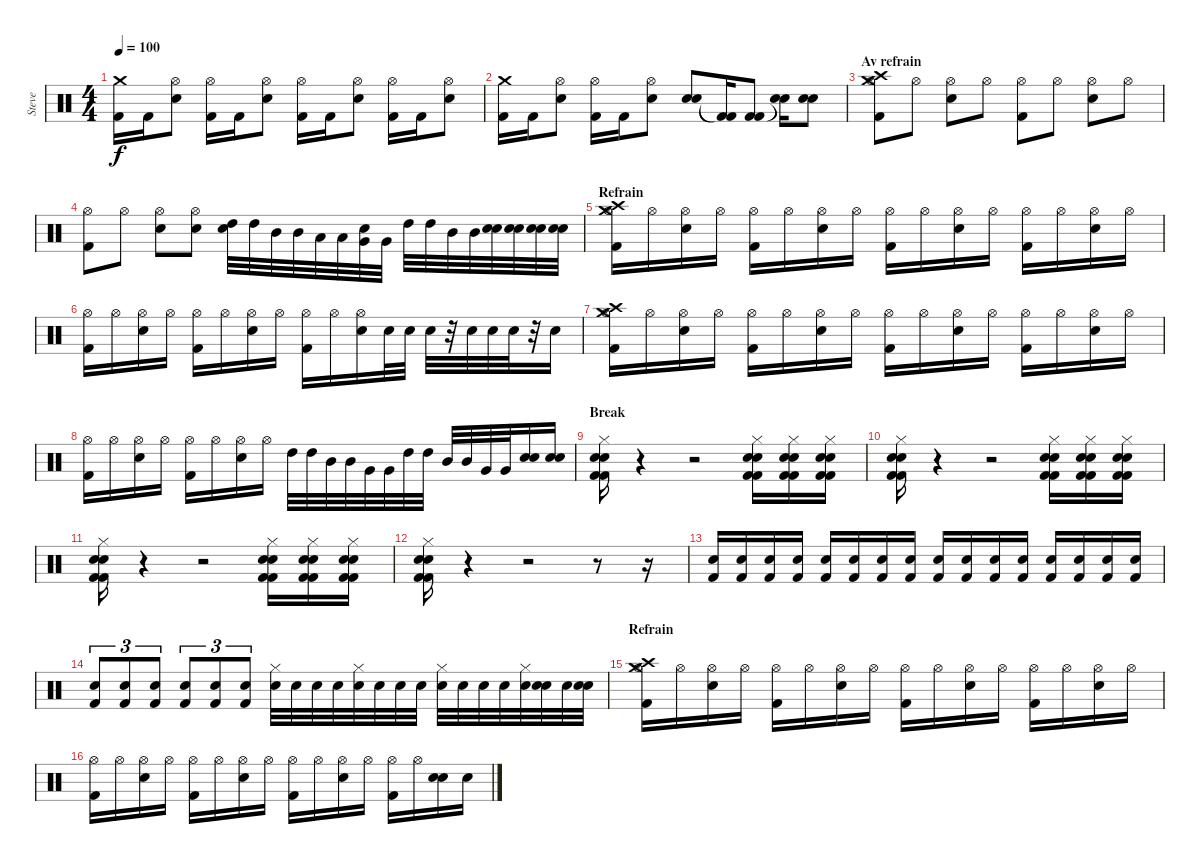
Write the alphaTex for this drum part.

\track ("Steve" "Steve") {instrument percussion}
\staff {score}
\articulation defaults
\ts (4 4)
\tempo 100
\clef neutral
\ks c
("Crash medium (hit)" "Kick (hit) 2").16{dy f} "Kick (hit) 2".16 ("Hi-Hat (open)" "Electric Snare (hit)").8 ("Hi-Hat (open)" "Kick (hit) 2").16 "Kick (hit) 2".16 ("Hi-Hat (open)" "Electric Snare (hit)").8 ("Hi-Hat (open)" "Kick (hit) 2").16 "Kick (hit) 2".16 ("Hi-Hat (open)" "Electric Snare (hit)").8 ("Hi-Hat (open)" "Kick (hit) 2").16 "Kick (hit) 2".16 ("Hi-Hat (open)" "Electric Snare (hit)").8 |
("Crash medium (hit)" "Kick (hit) 2").16 "Kick (hit) 2".16 ("Hi-Hat (open)" "Electric Snare (hit)").8 ("Hi-Hat (open)" "Kick (hit) 2").16 "Kick (hit) 2".16 ("Hi-Hat (open)" "Electric Snare (hit)").8 ("Electric Snare (hit)" "Electric Snare (hit)").8 ("Kick (hit) 2"{t} "Kick (hit) 2"{t}).16 ("Kick (hit) 2" "Kick (hit) 2").8 ("Electric Snare (hit)"{t} "Electric Snare (hit)"{t}).16 ("Electric Snare (hit)" "Electric Snare (hit)").8 |
\section ("" "Av refrain")
("Crash medium (hit)" "Crash high (hit)" "Hi-Hat (open)" "Kick (hit) 2").8 "Hi-Hat (open)".8 ("Hi-Hat (open)" "Electric Snare (hit)").8 "Hi-Hat (open)".8 ("Hi-Hat (open)" "Kick (hit) 2").8 "Hi-Hat (open)".8 ("Hi-Hat (open)" "Electric Snare (hit)").8 "Hi-Hat (open)".8 |
("Hi-Hat (open)" "Kick (hit) 2").8 "Hi-Hat (open)".8 ("Hi-Hat (open)" "Electric Snare (hit)").8 ("Hi-Hat (open)" "Electric Snare (hit)").8 ("Electric Snare (hit)" "High Tom (hit)").32 "High Tom (hit)".32 "Mid Tom (hit)".32 "Mid Tom (hit)".32 "Low Tom (hit)".32 "Low Tom (hit)".32 ("Electric Snare (hit)" "Very Low Tom (hit)").32 "Very Low Tom (hit)".32 "High Tom (hit)".32 "High Tom (hit)".32 "Mid Tom (hit)".32 "Mid Tom (hit)".32 ("Electric Snare (hit)" "Electric Snare (hit)").32 ("Electric Snare (hit)" "Electric Snare (hit)").32 ("Electric Snare (hit)" "Electric Snare (hit)").32 ("Electric Snare (hit)" "Electric Snare (hit)").32 |
\section ("" "Refrain")
("Crash medium (hit)" "Crash high (hit)" "Hi-Hat (open)" "Kick (hit) 2").16 "Hi-Hat (open)".16 ("Hi-Hat (open)" "Electric Snare (hit)").16 "Hi-Hat (open)".16 ("Hi-Hat (open)" "Kick (hit) 2").16 "Hi-Hat (open)".16 ("Hi-Hat (open)" "Electric Snare (hit)").16 "Hi-Hat (open)".16 ("Hi-Hat (open)" "Kick (hit) 2").16 "Hi-Hat (open)".16 ("Hi-Hat (open)" "Electric Snare (hit)").16 "Hi-Hat (open)".16 ("Hi-Hat (open)" "Kick (hit) 2").16 "Hi-Hat (open)".16 ("Hi-Hat (open)" "Electric Snare (hit)").16 "Hi-Hat (open)".16 |
("Hi-Hat (open)" "Kick (hit) 2").16 "Hi-Hat (open)".16 ("Hi-Hat (open)" "Electric Snare (hit)").16 "Hi-Hat (open)".16 ("Hi-Hat (open)" "Kick (hit) 2").16 "Hi-Hat (open)".16 ("Hi-Hat (open)" "Electric Snare (hit)").16 "Hi-Hat (open)".16 ("Hi-Hat (open)" "Kick (hit) 2").16 "Hi-Hat (open)".16 ("Hi-Hat (open)" "Electric Snare (hit)").16 "Electric Snare (hit)".32 "Electric Snare (hit)".32 "Electric Snare (hit)".32 r.32 "Electric Snare (hit)".32 "Electric Snare (hit)".32 "Electric Snare (hit)".32 r.32 "Electric Snare (hit)".16 |
("Crash medium (hit)" "Crash high (hit)" "Hi-Hat (open)" "Kick (hit) 2").16 "Hi-Hat (open)".16 ("Hi-Hat (open)" "Electric Snare (hit)").16 "Hi-Hat (open)".16 ("Hi-Hat (open)" "Kick (hit) 2").16 "Hi-Hat (open)".16 ("Hi-Hat (open)" "Electric Snare (hit)").16 "Hi-Hat (open)".16 ("Hi-Hat (open)" "Kick (hit) 2").16 "Hi-Hat (open)".16 ("Hi-Hat (open)" "Electric Snare (hit)").16 "Hi-Hat (open)".16 ("Hi-Hat (open)" "Kick (hit) 2").16 "Hi-Hat (open)".16 ("Hi-Hat (open)" "Electric Snare (hit)").16 "Hi-Hat (open)".16 |
("Hi-Hat (open)" "Kick (hit) 2").16 "Hi-Hat (open)".16 ("Hi-Hat (open)" "Electric Snare (hit)").16 "Hi-Hat (open)".16 ("Hi-Hat (open)" "Kick (hit) 2").16 "Hi-Hat (open)".16 ("Hi-Hat (open)" "Electric Snare (hit)").16 "Hi-Hat (open)".16 "High Tom (hit)".32 "High Tom (hit)".32 "Mid Tom (hit)".32 "Mid Tom (hit)".32 "Very Low Tom (hit)".32 "Very Low Tom (hit)".32 "High Tom (hit)".32 "High Tom (hit)".32 "Mid Tom (hit)".32 "Mid Tom (hit)".32 "Very Low Tom (hit)".32 "Very Low Tom (hit)".32 ("Electric Snare (hit)" "Electric Snare (hit)").16 ("Electric Snare (hit)" "Electric Snare (hit)").16 |
\section ("" "Break")
("Kick (hit) 2" "Electric Snare (hit)" "Hi-Hat (closed)" "Kick (hit) 2" "Electric Snare (hit)").16 r.4 r.2 ("Kick (hit) 2" "Electric Snare (hit)" "Hi-Hat (closed)" "Kick (hit) 2" "Electric Snare (hit)").16 ("Kick (hit) 2" "Electric Snare (hit)" "Hi-Hat (closed)" "Kick (hit) 2" "Electric Snare (hit)").16 ("Kick (hit) 2" "Electric Snare (hit)" "Hi-Hat (closed)" "Kick (hit) 2" "Electric Snare (hit)").16 |
("Kick (hit) 2" "Electric Snare (hit)" "Hi-Hat (closed)" "Kick (hit) 2" "Electric Snare (hit)").16 r.4 r.2 ("Kick (hit) 2" "Electric Snare (hit)" "Hi-Hat (closed)" "Kick (hit) 2" "Electric Snare (hit)").16 ("Kick (hit) 2" "Electric Snare (hit)" "Hi-Hat (closed)" "Kick (hit) 2" "Electric Snare (hit)").16 ("Kick (hit) 2" "Electric Snare (hit)" "Hi-Hat (closed)" "Kick (hit) 2" "Electric Snare (hit)").16 |
("Kick (hit) 2" "Electric Snare (hit)" "Hi-Hat (closed)" "Kick (hit) 2" "Electric Snare (hit)").16 r.4 r.2 ("Kick (hit) 2" "Electric Snare (hit)" "Hi-Hat (closed)" "Kick (hit) 2" "Electric Snare (hit)").16 ("Kick (hit) 2" "Electric Snare (hit)" "Hi-Hat (closed)" "Kick (hit) 2" "Electric Snare (hit)").16 ("Kick (hit) 2" "Electric Snare (hit)" "Hi-Hat (closed)" "Kick (hit) 2" "Electric Snare (hit)").16 |
("Kick (hit) 2" "Electric Snare (hit)" "Hi-Hat (closed)" "Kick (hit) 2" "Electric Snare (hit)").16 r.4 r.2 r.8 r.16 |
("Electric Snare (hit)" "Kick (hit) 2").16 ("Electric Snare (hit)" "Kick (hit) 2").16 ("Electric Snare (hit)" "Kick (hit) 2").16 ("Electric Snare (hit)" "Kick (hit) 2").16 ("Electric Snare (hit)" "Kick (hit) 2").16 ("Electric Snare (hit)" "Kick (hit) 2").16 ("Electric Snare (hit)" "Kick (hit) 2").16 ("Electric Snare (hit)" "Kick (hit) 2").16 ("Electric Snare (hit)" "Kick (hit) 2").16 ("Electric Snare (hit)" "Kick (hit) 2").16 ("Electric Snare (hit)" "Kick (hit) 2").16 ("Electric Snare (hit)" "Kick (hit) 2").16 ("Electric Snare (hit)" "Kick (hit) 2").16 ("Electric Snare (hit)" "Kick (hit) 2").16 ("Electric Snare (hit)" "Kick (hit) 2").16 ("Electric Snare (hit)" "Kick (hit) 2").16 |
("Electric Snare (hit)" "Kick (hit) 2").8{tu (3 2)} ("Electric Snare (hit)" "Kick (hit) 2").8{tu (3 2)} ("Electric Snare (hit)" "Kick (hit) 2").8{tu (3 2)} ("Electric Snare (hit)" "Kick (hit) 2").8{tu (3 2)} ("Electric Snare (hit)" "Kick (hit) 2").8{tu (3 2)} ("Electric Snare (hit)" "Kick (hit) 2").8{tu (3 2)} ("Hi-Hat (closed)" "Electric Snare (hit)").32 "Electric Snare (hit)".32 "Electric Snare (hit)".32 "Electric Snare (hit)".32 ("Hi-Hat (closed)" "Electric Snare (hit)").32 "Electric Snare (hit)".32 "Electric Snare (hit)".32 "Electric Snare (hit)".32 ("Hi-Hat (closed)" "Electric Snare (hit)").32 "Electric Snare (hit)".32 "Electric Snare (hit)".32 "Electric Snare (hit)".32 ("Hi-Hat (closed)" "Electric Snare (hit)").32 ("Electric Snare (hit)" "Electric Snare (hit)").32 "Electric Snare (hit)".32 ("Electric Snare (hit)" "Electric Snare (hit)").32 |
\section ("" "Refrain")
("Crash medium (hit)" "Crash high (hit)" "Hi-Hat (open)" "Kick (hit) 2").16 "Hi-Hat (open)".16 ("Hi-Hat (open)" "Electric Snare (hit)").16 "Hi-Hat (open)".16 ("Hi-Hat (open)" "Kick (hit) 2").16 "Hi-Hat (open)".16 ("Hi-Hat (open)" "Electric Snare (hit)").16 "Hi-Hat (open)".16 ("Hi-Hat (open)" "Kick (hit) 2").16 "Hi-Hat (open)".16 ("Hi-Hat (open)" "Electric Snare (hit)").16 "Hi-Hat (open)".16 ("Hi-Hat (open)" "Kick (hit) 2").16 "Hi-Hat (open)".16 ("Hi-Hat (open)" "Electric Snare (hit)").16 "Hi-Hat (open)".16 |
("Hi-Hat (open)" "Kick (hit) 2").16 "Hi-Hat (open)".16 ("Hi-Hat (open)" "Electric Snare (hit)").16 "Hi-Hat (open)".16 ("Hi-Hat (open)" "Kick (hit) 2").16 "Hi-Hat (open)".16 ("Hi-Hat (open)" "Electric Snare (hit)").16 "Hi-Hat (open)".16 ("Hi-Hat (open)" "Kick (hit) 2").16 "Hi-Hat (open)".16 ("Hi-Hat (open)" "Electric Snare (hit)").16 "Hi-Hat (open)".16 ("Hi-Hat (open)" "Kick (hit) 2").16 "Hi-Hat (open)".16 ("Electric Snare (hit)" "Electric Snare (hit)").16 "Electric Snare (hit)".16
